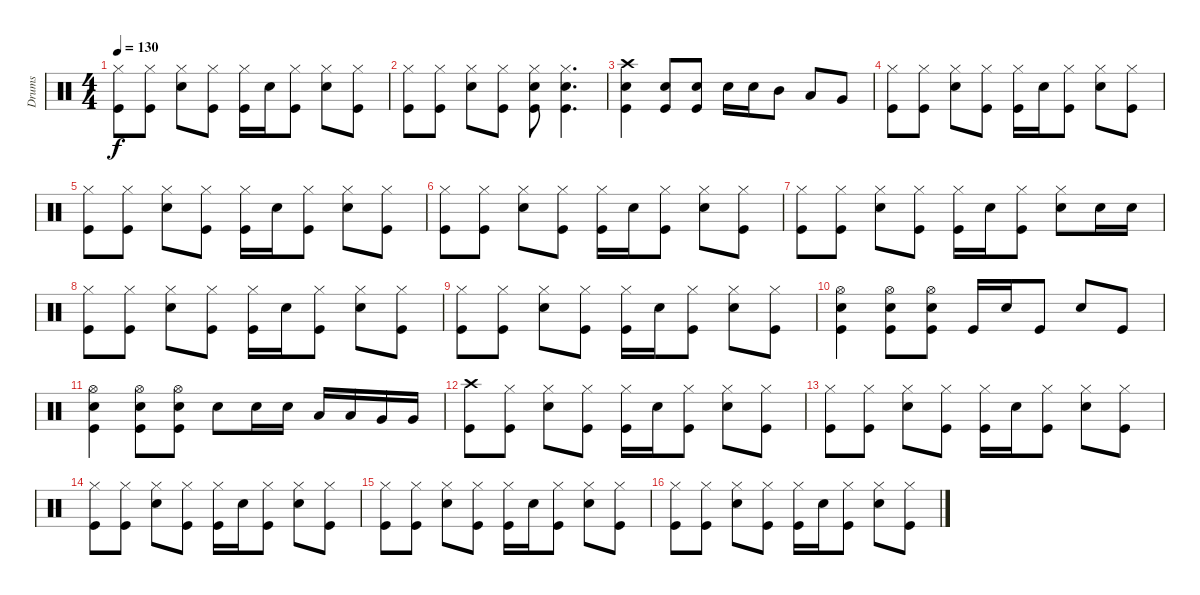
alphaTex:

\track ("Drums" "Drums") {instrument percussion}
\staff {score}
\articulation defaults
\ts (4 4)
\tempo 130
\clef neutral
\ks c
("Hi-Hat (closed)" "Kick (hit)").8{dy f} ("Hi-Hat (closed)" "Kick (hit)").8 ("Hi-Hat (closed)" "Snare (hit) 2").8 ("Hi-Hat (closed)" "Kick (hit)").8 ("Hi-Hat (closed)" "Kick (hit)").16 "Snare (hit) 2".16 ("Hi-Hat (closed)" "Kick (hit)").8 ("Hi-Hat (closed)" "Snare (hit) 2").8 ("Hi-Hat (closed)" "Kick (hit)").8 |
("Hi-Hat (closed)" "Kick (hit)").8 ("Hi-Hat (closed)" "Kick (hit)").8 ("Hi-Hat (closed)" "Snare (hit) 2").8 ("Hi-Hat (closed)" "Kick (hit)").8 ("Hi-Hat (closed)" "Snare (hit) 2" "Kick (hit)").8 ("Hi-Hat (closed)" "Snare (hit) 2" "Kick (hit)").4{d} |
("Crash high (hit)" "Snare (hit) 2" "Kick (hit)").4 ("Snare (hit) 2" "Kick (hit)").8 ("Snare (hit) 2" "Kick (hit)").8 "Snare (hit) 2".16 "Snare (hit) 2".16 "Mid Tom (hit)".8 "Low Tom (hit)".8 "Very Low Tom (hit)".8 |
("Hi-Hat (closed)" "Kick (hit)").8 ("Hi-Hat (closed)" "Kick (hit)").8 ("Hi-Hat (closed)" "Snare (hit) 2").8 ("Hi-Hat (closed)" "Kick (hit)").8 ("Hi-Hat (closed)" "Kick (hit)").16 "Snare (hit) 2".16 ("Hi-Hat (closed)" "Kick (hit)").8 ("Hi-Hat (closed)" "Snare (hit) 2").8 ("Hi-Hat (closed)" "Kick (hit)").8 |
("Hi-Hat (closed)" "Kick (hit)").8 ("Hi-Hat (closed)" "Kick (hit)").8 ("Hi-Hat (closed)" "Snare (hit) 2").8 ("Hi-Hat (closed)" "Kick (hit)").8 ("Hi-Hat (closed)" "Kick (hit)").16 "Snare (hit) 2".16 ("Hi-Hat (closed)" "Kick (hit)").8 ("Hi-Hat (closed)" "Snare (hit) 2").8 ("Hi-Hat (closed)" "Kick (hit)").8 |
("Hi-Hat (closed)" "Kick (hit)").8 ("Hi-Hat (closed)" "Kick (hit)").8 ("Hi-Hat (closed)" "Snare (hit) 2").8 ("Hi-Hat (closed)" "Kick (hit)").8 ("Hi-Hat (closed)" "Kick (hit)").16 "Snare (hit) 2".16 ("Hi-Hat (closed)" "Kick (hit)").8 ("Hi-Hat (closed)" "Snare (hit) 2").8 ("Hi-Hat (closed)" "Kick (hit)").8 |
("Hi-Hat (closed)" "Kick (hit)").8 ("Hi-Hat (closed)" "Kick (hit)").8 ("Hi-Hat (closed)" "Snare (hit) 2").8 ("Hi-Hat (closed)" "Kick (hit)").8 ("Hi-Hat (closed)" "Kick (hit)").16 "Snare (hit) 2".16 ("Hi-Hat (closed)" "Kick (hit)").8 ("Hi-Hat (closed)" "Snare (hit) 2").8 "Snare (hit) 2".16 "Snare (hit) 2".16 |
("Hi-Hat (closed)" "Kick (hit)").8 ("Hi-Hat (closed)" "Kick (hit)").8 ("Hi-Hat (closed)" "Snare (hit) 2").8 ("Hi-Hat (closed)" "Kick (hit)").8 ("Hi-Hat (closed)" "Kick (hit)").16 "Snare (hit) 2".16 ("Hi-Hat (closed)" "Kick (hit)").8 ("Hi-Hat (closed)" "Snare (hit) 2").8 ("Hi-Hat (closed)" "Kick (hit)").8 |
("Hi-Hat (closed)" "Kick (hit)").8 ("Hi-Hat (closed)" "Kick (hit)").8 ("Hi-Hat (closed)" "Snare (hit) 2").8 ("Hi-Hat (closed)" "Kick (hit)").8 ("Hi-Hat (closed)" "Kick (hit)").16 "Snare (hit) 2".16 ("Hi-Hat (closed)" "Kick (hit)").8 ("Hi-Hat (closed)" "Snare (hit) 2").8 ("Hi-Hat (closed)" "Kick (hit)").8 |
("Hi-Hat (open)" "Snare (hit) 2" "Kick (hit)").4 ("Hi-Hat (open)" "Snare (hit) 2" "Kick (hit)").8 ("Hi-Hat (open)" "Snare (hit) 2" "Kick (hit)").8 "Kick (hit)".16 "Snare (hit) 2".16 "Kick (hit)".8 "Snare (hit) 2".8 "Kick (hit)".8 |
("Hi-Hat (open)" "Snare (hit) 2" "Kick (hit)").4 ("Hi-Hat (open)" "Snare (hit) 2" "Kick (hit)").8 ("Hi-Hat (open)" "Snare (hit) 2" "Kick (hit)").8 "Snare (hit) 2".8 "Snare (hit) 2".16 "Snare (hit) 2".16 "Low Tom (hit)".16 "Low Tom (hit)".16 "Very Low Tom (hit)".16 "Very Low Tom (hit)".16 |
("Crash high (hit)" "Kick (hit)").8 ("Hi-Hat (closed)" "Kick (hit)").8 ("Hi-Hat (closed)" "Snare (hit) 2").8 ("Hi-Hat (closed)" "Kick (hit)").8 ("Hi-Hat (closed)" "Kick (hit)").16 "Snare (hit) 2".16 ("Hi-Hat (closed)" "Kick (hit)").8 ("Hi-Hat (closed)" "Snare (hit) 2").8 ("Hi-Hat (closed)" "Kick (hit)").8 |
("Hi-Hat (closed)" "Kick (hit)").8 ("Hi-Hat (closed)" "Kick (hit)").8 ("Hi-Hat (closed)" "Snare (hit) 2").8 ("Hi-Hat (closed)" "Kick (hit)").8 ("Hi-Hat (closed)" "Kick (hit)").16 "Snare (hit) 2".16 ("Hi-Hat (closed)" "Kick (hit)").8 ("Hi-Hat (closed)" "Snare (hit) 2").8 ("Hi-Hat (closed)" "Kick (hit)").8 |
("Hi-Hat (closed)" "Kick (hit)").8 ("Hi-Hat (closed)" "Kick (hit)").8 ("Hi-Hat (closed)" "Snare (hit) 2").8 ("Hi-Hat (closed)" "Kick (hit)").8 ("Hi-Hat (closed)" "Kick (hit)").16 "Snare (hit) 2".16 ("Hi-Hat (closed)" "Kick (hit)").8 ("Hi-Hat (closed)" "Snare (hit) 2").8 ("Hi-Hat (closed)" "Kick (hit)").8 |
("Hi-Hat (closed)" "Kick (hit)").8 ("Hi-Hat (closed)" "Kick (hit)").8 ("Hi-Hat (closed)" "Snare (hit) 2").8 ("Hi-Hat (closed)" "Kick (hit)").8 ("Hi-Hat (closed)" "Kick (hit)").16 "Snare (hit) 2".16 ("Hi-Hat (closed)" "Kick (hit)").8 ("Hi-Hat (closed)" "Snare (hit) 2").8 ("Hi-Hat (closed)" "Kick (hit)").8 |
("Hi-Hat (closed)" "Kick (hit)").8 ("Hi-Hat (closed)" "Kick (hit)").8 ("Hi-Hat (closed)" "Snare (hit) 2").8 ("Hi-Hat (closed)" "Kick (hit)").8 ("Hi-Hat (closed)" "Kick (hit)").16 "Snare (hit) 2".16 ("Hi-Hat (closed)" "Kick (hit)").8 ("Hi-Hat (closed)" "Snare (hit) 2").8 ("Hi-Hat (closed)" "Kick (hit)").8
